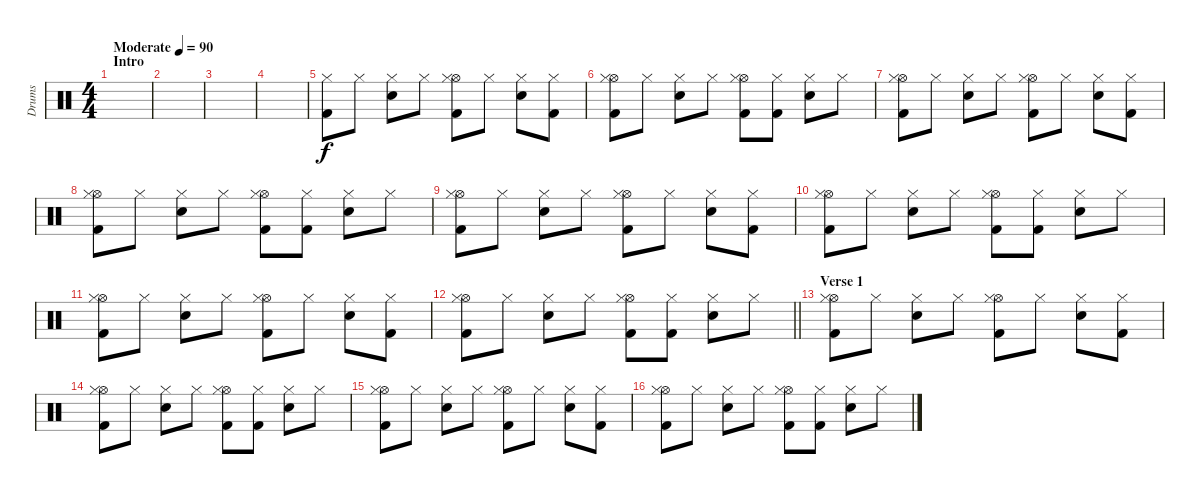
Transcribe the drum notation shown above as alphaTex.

\track ("Drums" "Drums") {instrument percussion}
\staff {score}
\articulation defaults
\ts (4 4)
\section ("" "Intro")
\tempo (90 "Moderate")
\clef neutral
\ks c
|
|
|
|
("Hi-Hat (closed)" "Kick (hit) 2").8 "Hi-Hat (closed)".8 ("Hi-Hat (closed)" "Electric Snare (hit)").8 "Hi-Hat (closed)".8 ("Hi-Hat (open)" "Hi-Hat (closed)" "Kick (hit) 2").8 "Hi-Hat (closed)".8 ("Hi-Hat (closed)" "Electric Snare (hit)").8 ("Hi-Hat (closed)" "Kick (hit) 2").8 |
("Hi-Hat (open)" "Hi-Hat (closed)" "Kick (hit) 2").8 "Hi-Hat (closed)".8 ("Hi-Hat (closed)" "Electric Snare (hit)").8 "Hi-Hat (closed)".8 ("Hi-Hat (open)" "Hi-Hat (closed)" "Kick (hit) 2").8 ("Hi-Hat (closed)" "Kick (hit) 2").8 ("Hi-Hat (closed)" "Electric Snare (hit)").8 "Hi-Hat (closed)".8 |
("Hi-Hat (open)" "Hi-Hat (closed)" "Kick (hit) 2").8 "Hi-Hat (closed)".8 ("Hi-Hat (closed)" "Electric Snare (hit)").8 "Hi-Hat (closed)".8 ("Hi-Hat (open)" "Hi-Hat (closed)" "Kick (hit) 2").8 "Hi-Hat (closed)".8 ("Hi-Hat (closed)" "Electric Snare (hit)").8 ("Hi-Hat (closed)" "Kick (hit) 2").8 |
("Hi-Hat (open)" "Hi-Hat (closed)" "Kick (hit) 2").8 "Hi-Hat (closed)".8 ("Hi-Hat (closed)" "Electric Snare (hit)").8 "Hi-Hat (closed)".8 ("Hi-Hat (open)" "Hi-Hat (closed)" "Kick (hit) 2").8 ("Hi-Hat (closed)" "Kick (hit) 2").8 ("Hi-Hat (closed)" "Electric Snare (hit)").8 "Hi-Hat (closed)".8 |
("Hi-Hat (open)" "Hi-Hat (closed)" "Kick (hit) 2").8 "Hi-Hat (closed)".8 ("Hi-Hat (closed)" "Electric Snare (hit)").8 "Hi-Hat (closed)".8 ("Hi-Hat (open)" "Hi-Hat (closed)" "Kick (hit) 2").8 "Hi-Hat (closed)".8 ("Hi-Hat (closed)" "Electric Snare (hit)").8 ("Hi-Hat (closed)" "Kick (hit) 2").8 |
("Hi-Hat (open)" "Hi-Hat (closed)" "Kick (hit) 2").8 "Hi-Hat (closed)".8 ("Hi-Hat (closed)" "Electric Snare (hit)").8 "Hi-Hat (closed)".8 ("Hi-Hat (open)" "Hi-Hat (closed)" "Kick (hit) 2").8 ("Hi-Hat (closed)" "Kick (hit) 2").8 ("Hi-Hat (closed)" "Electric Snare (hit)").8 "Hi-Hat (closed)".8 |
("Hi-Hat (open)" "Hi-Hat (closed)" "Kick (hit) 2").8 "Hi-Hat (closed)".8 ("Hi-Hat (closed)" "Electric Snare (hit)").8 "Hi-Hat (closed)".8 ("Hi-Hat (open)" "Hi-Hat (closed)" "Kick (hit) 2").8 "Hi-Hat (closed)".8 ("Hi-Hat (closed)" "Electric Snare (hit)").8 ("Hi-Hat (closed)" "Kick (hit) 2").8 |
\barLineRight lightlight
("Hi-Hat (open)" "Hi-Hat (closed)" "Kick (hit) 2").8 "Hi-Hat (closed)".8 ("Hi-Hat (closed)" "Electric Snare (hit)").8 "Hi-Hat (closed)".8 ("Hi-Hat (open)" "Hi-Hat (closed)" "Kick (hit) 2").8 ("Hi-Hat (closed)" "Kick (hit) 2").8 ("Hi-Hat (closed)" "Electric Snare (hit)").8 "Hi-Hat (closed)".8 |
\section ("" "Verse 1")
("Hi-Hat (open)" "Hi-Hat (closed)" "Kick (hit) 2").8 "Hi-Hat (closed)".8 ("Hi-Hat (closed)" "Electric Snare (hit)").8 "Hi-Hat (closed)".8 ("Hi-Hat (open)" "Hi-Hat (closed)" "Kick (hit) 2").8 "Hi-Hat (closed)".8 ("Hi-Hat (closed)" "Electric Snare (hit)").8 ("Hi-Hat (closed)" "Kick (hit) 2").8 |
("Hi-Hat (open)" "Hi-Hat (closed)" "Kick (hit) 2").8 "Hi-Hat (closed)".8 ("Hi-Hat (closed)" "Electric Snare (hit)").8 "Hi-Hat (closed)".8 ("Hi-Hat (open)" "Hi-Hat (closed)" "Kick (hit) 2").8 ("Hi-Hat (closed)" "Kick (hit) 2").8 ("Hi-Hat (closed)" "Electric Snare (hit)").8 "Hi-Hat (closed)".8 |
("Hi-Hat (open)" "Hi-Hat (closed)" "Kick (hit) 2").8 "Hi-Hat (closed)".8 ("Hi-Hat (closed)" "Electric Snare (hit)").8 "Hi-Hat (closed)".8 ("Hi-Hat (open)" "Hi-Hat (closed)" "Kick (hit) 2").8 "Hi-Hat (closed)".8 ("Hi-Hat (closed)" "Electric Snare (hit)").8 ("Hi-Hat (closed)" "Kick (hit) 2").8 |
("Hi-Hat (open)" "Hi-Hat (closed)" "Kick (hit) 2").8 "Hi-Hat (closed)".8 ("Hi-Hat (closed)" "Electric Snare (hit)").8 "Hi-Hat (closed)".8 ("Hi-Hat (open)" "Hi-Hat (closed)" "Kick (hit) 2").8 ("Hi-Hat (closed)" "Kick (hit) 2").8 ("Hi-Hat (closed)" "Electric Snare (hit)").8 "Hi-Hat (closed)".8
